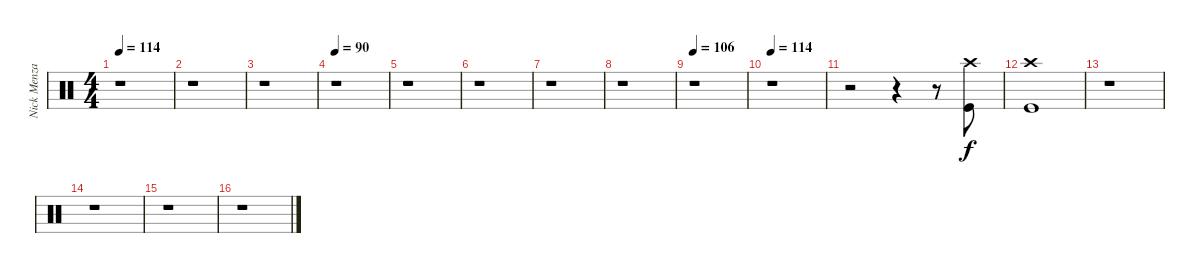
\track ("Nick Menza" "Nick Menza") {instrument percussion}
\staff {score}
\articulation defaults
\ts (4 4)
\tempo 114
\clef neutral
\ks c
r.1{dy f} |
r.1 |
r.1 |
\tempo 90
r.1 |
r.1 |
r.1 |
r.1 |
r.1 |
\tempo 106
r.1 |
\tempo 114
r.1 |
r.2 r.4 r.8 ("Crash high (hit)" "Kick (hit)").8 |
("Crash high (hit)" "Kick (hit)").1 |
r.1 |
r.1 |
r.1 |
r.1
